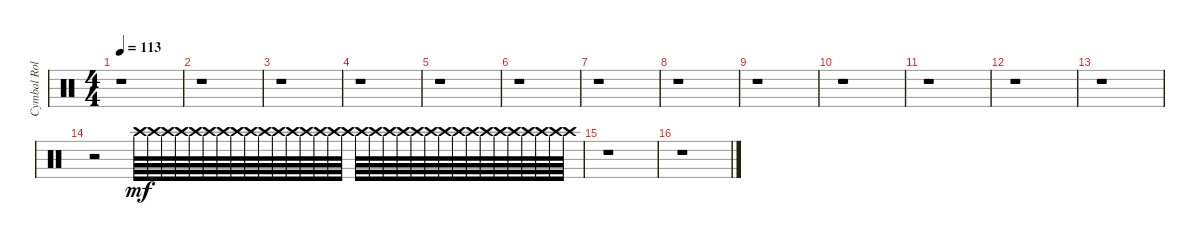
\track ("Cymbal Rolls" "Cymbal Rol") {instrument percussion}
\staff {score}
\articulation defaults
\ts (4 4)
\tempo 113
\clef neutral
\ks c
r.1{dy mf} |
r.1 |
r.1 |
r.1 |
r.1 |
r.1 |
r.1 |
r.1 |
r.1 |
r.1 |
r.1 |
r.1 |
r.1 |
r.2 "Crash high (hit)".64 "Crash high (hit)".64 "Crash high (hit)".64 "Crash high (hit)".64 "Crash high (hit)".64 "Crash high (hit)".64 "Crash high (hit)".64 "Crash high (hit)".64 "Crash high (hit)".64 "Crash high (hit)".64 "Crash high (hit)".64 "Crash high (hit)".64 "Crash high (hit)".64 "Crash high (hit)".64 "Crash high (hit)".64 "Crash high (hit)".64 "Crash high (hit)".64 "Crash high (hit)".64 "Crash high (hit)".64 "Crash high (hit)".64 "Crash high (hit)".64 "Crash high (hit)".64 "Crash high (hit)".64 "Crash high (hit)".64 "Crash high (hit)".64 "Crash high (hit)".64 "Crash high (hit)".64 "Crash high (hit)".64 "Crash high (hit)".64 "Crash high (hit)".64 "Crash high (hit)".64 "Crash high (hit)".64 |
r.1 |
r.1
